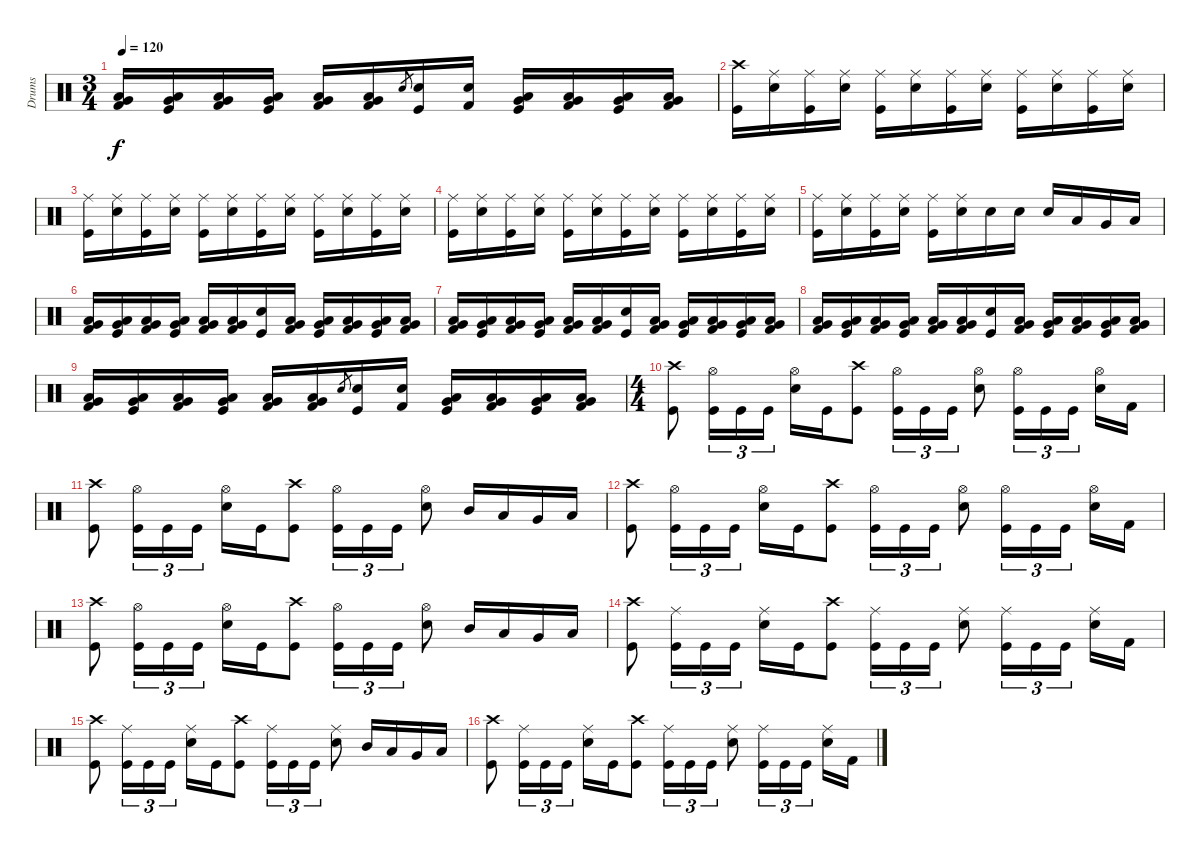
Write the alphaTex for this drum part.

\track ("Drums" "Drums") {instrument percussion}
\staff {score}
\articulation defaults
\ts (3 4)
\tempo 120
\clef neutral
\ks c
("Kick (hit) 2" "Very Low Tom (hit)" "Low Floor Tom (hit)").16{dy f} ("Kick (hit)" "Low Tom (hit)" "Very Low Tom (hit)").16 ("Kick (hit) 2" "Very Low Tom (hit)" "Low Floor Tom (hit)").16 ("Kick (hit)" "Low Tom (hit)" "Very Low Tom (hit)").16 ("Kick (hit) 2" "Very Low Tom (hit)" "Low Floor Tom (hit)").16 ("Kick (hit) 2" "Low Tom (hit)" "Very Low Tom (hit)").16 "Electric Snare (hit)".8{gr} ("Kick (hit)" "Electric Snare (hit)").16 ("Kick (hit) 2" "Electric Snare (hit)").16 ("Kick (hit)" "Very Low Tom (hit)" "Low Floor Tom (hit)").16 ("Kick (hit) 2" "Low Tom (hit)" "Very Low Tom (hit)").16 ("Kick (hit)" "Very Low Tom (hit)" "Low Floor Tom (hit)").16 ("Kick (hit) 2" "Low Tom (hit)" "Very Low Tom (hit)").16 |
("Kick (hit)" "Crash high (hit)").16 ("Ride (middle)" "Electric Snare (hit)").16 ("Kick (hit)" "Ride (middle)").16 ("Ride (middle)" "Electric Snare (hit)").16 ("Kick (hit)" "Ride (middle)").16 ("Ride (middle)" "Electric Snare (hit)").16 ("Kick (hit)" "Ride (middle)").16 ("Ride (middle)" "Electric Snare (hit)").16 ("Kick (hit)" "Ride (middle)").16 ("Ride (middle)" "Electric Snare (hit)").16 ("Kick (hit)" "Ride (middle)").16 ("Ride (middle)" "Electric Snare (hit)").16 |
("Kick (hit)" "Ride (middle)").16 ("Ride (middle)" "Electric Snare (hit)").16 ("Kick (hit)" "Ride (middle)").16 ("Ride (middle)" "Electric Snare (hit)").16 ("Kick (hit)" "Ride (middle)").16 ("Ride (middle)" "Electric Snare (hit)").16 ("Kick (hit)" "Ride (middle)").16 ("Ride (middle)" "Electric Snare (hit)").16 ("Kick (hit)" "Ride (middle)").16 ("Ride (middle)" "Electric Snare (hit)").16 ("Kick (hit)" "Ride (middle)").16 ("Ride (middle)" "Electric Snare (hit)").16 |
("Kick (hit)" "Ride (middle)").16 ("Ride (middle)" "Electric Snare (hit)").16 ("Kick (hit)" "Ride (middle)").16 ("Ride (middle)" "Electric Snare (hit)").16 ("Kick (hit)" "Ride (middle)").16 ("Ride (middle)" "Electric Snare (hit)").16 ("Kick (hit)" "Ride (middle)").16 ("Ride (middle)" "Electric Snare (hit)").16 ("Kick (hit)" "Ride (middle)").16 ("Ride (middle)" "Electric Snare (hit)").16 ("Kick (hit)" "Ride (middle)").16 ("Ride (middle)" "Electric Snare (hit)").16 |
("Kick (hit)" "Ride (middle)").16 ("Ride (middle)" "Electric Snare (hit)").16 ("Kick (hit)" "Ride (middle)").16 ("Ride (middle)" "Electric Snare (hit)").16 ("Kick (hit)" "Ride (middle)").16 ("Ride (middle)" "Electric Snare (hit)").16 "Electric Snare (hit)".16 "Electric Snare (hit)".16 "Electric Snare (hit)".16 "Low Tom (hit)".16 "Very Low Tom (hit)".16 "Low Floor Tom (hit)".16 |
("Kick (hit) 2" "Very Low Tom (hit)" "Low Floor Tom (hit)").16 ("Kick (hit)" "Low Tom (hit)" "Very Low Tom (hit)").16 ("Kick (hit) 2" "Very Low Tom (hit)" "Low Floor Tom (hit)").16 ("Kick (hit)" "Low Tom (hit)" "Very Low Tom (hit)").16 ("Kick (hit) 2" "Very Low Tom (hit)" "Low Floor Tom (hit)").16 ("Kick (hit) 2" "Low Tom (hit)" "Very Low Tom (hit)").16 ("Kick (hit)" "Electric Snare (hit)").16 ("Kick (hit) 2" "Low Tom (hit)" "Very Low Tom (hit)").16 ("Kick (hit)" "Very Low Tom (hit)" "Low Floor Tom (hit)").16 ("Kick (hit) 2" "Low Tom (hit)" "Very Low Tom (hit)").16 ("Kick (hit)" "Very Low Tom (hit)" "Low Floor Tom (hit)").16 ("Kick (hit) 2" "Low Tom (hit)" "Very Low Tom (hit)").16 |
("Kick (hit) 2" "Very Low Tom (hit)" "Low Floor Tom (hit)").16 ("Kick (hit)" "Low Tom (hit)" "Very Low Tom (hit)").16 ("Kick (hit) 2" "Very Low Tom (hit)" "Low Floor Tom (hit)").16 ("Kick (hit)" "Low Tom (hit)" "Very Low Tom (hit)").16 ("Kick (hit) 2" "Very Low Tom (hit)" "Low Floor Tom (hit)").16 ("Kick (hit) 2" "Low Tom (hit)" "Very Low Tom (hit)").16 ("Kick (hit)" "Electric Snare (hit)").16 ("Kick (hit) 2" "Low Tom (hit)" "Very Low Tom (hit)").16 ("Kick (hit)" "Very Low Tom (hit)" "Low Floor Tom (hit)").16 ("Kick (hit) 2" "Low Tom (hit)" "Very Low Tom (hit)").16 ("Kick (hit)" "Very Low Tom (hit)" "Low Floor Tom (hit)").16 ("Kick (hit) 2" "Low Tom (hit)" "Very Low Tom (hit)").16 |
("Kick (hit) 2" "Very Low Tom (hit)" "Low Floor Tom (hit)").16 ("Kick (hit)" "Low Tom (hit)" "Very Low Tom (hit)").16 ("Kick (hit) 2" "Very Low Tom (hit)" "Low Floor Tom (hit)").16 ("Kick (hit)" "Low Tom (hit)" "Very Low Tom (hit)").16 ("Kick (hit) 2" "Very Low Tom (hit)" "Low Floor Tom (hit)").16 ("Kick (hit) 2" "Low Tom (hit)" "Very Low Tom (hit)").16 ("Kick (hit)" "Electric Snare (hit)").16 ("Kick (hit) 2" "Low Tom (hit)" "Very Low Tom (hit)").16 ("Kick (hit)" "Very Low Tom (hit)" "Low Floor Tom (hit)").16 ("Kick (hit) 2" "Low Tom (hit)" "Very Low Tom (hit)").16 ("Kick (hit)" "Very Low Tom (hit)" "Low Floor Tom (hit)").16 ("Kick (hit) 2" "Low Tom (hit)" "Very Low Tom (hit)").16 |
("Kick (hit) 2" "Very Low Tom (hit)" "Low Floor Tom (hit)").16 ("Kick (hit)" "Low Tom (hit)" "Very Low Tom (hit)").16 ("Kick (hit) 2" "Very Low Tom (hit)" "Low Floor Tom (hit)").16 ("Kick (hit)" "Low Tom (hit)" "Very Low Tom (hit)").16 ("Kick (hit) 2" "Very Low Tom (hit)" "Low Floor Tom (hit)").16 ("Kick (hit) 2" "Low Tom (hit)" "Very Low Tom (hit)").16 "Electric Snare (hit)".8{gr} ("Kick (hit)" "Electric Snare (hit)").16 ("Kick (hit) 2" "Electric Snare (hit)").16 ("Kick (hit)" "Very Low Tom (hit)" "Low Floor Tom (hit)").16 ("Kick (hit) 2" "Low Tom (hit)" "Very Low Tom (hit)").16 ("Kick (hit)" "Very Low Tom (hit)" "Low Floor Tom (hit)").16 ("Kick (hit) 2" "Low Tom (hit)" "Very Low Tom (hit)").16 |
\ts (4 4)
("Kick (hit)" "Crash high (hit)").8 ("Kick (hit)" "Hi-Hat (open)").16{tu (3 2)} "Kick (hit)".16{tu (3 2)} "Kick (hit)".16{tu (3 2)} ("Hi-Hat (open)" "Electric Snare (hit)").16 "Kick (hit)".16 ("Kick (hit)" "Crash high (hit)").8 ("Kick (hit)" "Hi-Hat (open)").16{tu (3 2)} "Kick (hit)".16{tu (3 2)} "Kick (hit)".16{tu (3 2)} ("Hi-Hat (open)" "Electric Snare (hit)").8 ("Kick (hit)" "Hi-Hat (open)").16{tu (3 2)} "Kick (hit)".16{tu (3 2)} "Kick (hit)".16{tu (3 2)} ("Hi-Hat (open)" "Electric Snare (hit)").16 "Kick (hit) 2".16 |
("Kick (hit)" "Crash high (hit)").8 ("Kick (hit)" "Hi-Hat (open)").16{tu (3 2)} "Kick (hit)".16{tu (3 2)} "Kick (hit)".16{tu (3 2)} ("Hi-Hat (open)" "Electric Snare (hit)").16 "Kick (hit)".16 ("Kick (hit)" "Crash high (hit)").8 ("Kick (hit)" "Hi-Hat (open)").16{tu (3 2)} "Kick (hit)".16{tu (3 2)} "Kick (hit)".16{tu (3 2)} ("Hi-Hat (open)" "Electric Snare (hit)").8 "Mid Tom (hit)".16 "Low Tom (hit)".16 "Very Low Tom (hit)".16 "Low Floor Tom (hit)".16 |
("Kick (hit)" "Crash high (hit)").8 ("Kick (hit)" "Hi-Hat (open)").16{tu (3 2)} "Kick (hit)".16{tu (3 2)} "Kick (hit)".16{tu (3 2)} ("Hi-Hat (open)" "Electric Snare (hit)").16 "Kick (hit)".16 ("Kick (hit)" "Crash high (hit)").8 ("Kick (hit)" "Hi-Hat (open)").16{tu (3 2)} "Kick (hit)".16{tu (3 2)} "Kick (hit)".16{tu (3 2)} ("Hi-Hat (open)" "Electric Snare (hit)").8 ("Kick (hit)" "Hi-Hat (open)").16{tu (3 2)} "Kick (hit)".16{tu (3 2)} "Kick (hit)".16{tu (3 2)} ("Hi-Hat (open)" "Electric Snare (hit)").16 "Kick (hit) 2".16 |
("Kick (hit)" "Crash high (hit)").8 ("Kick (hit)" "Hi-Hat (open)").16{tu (3 2)} "Kick (hit)".16{tu (3 2)} "Kick (hit)".16{tu (3 2)} ("Hi-Hat (open)" "Electric Snare (hit)").16 "Kick (hit)".16 ("Kick (hit)" "Crash high (hit)").8 ("Kick (hit)" "Hi-Hat (open)").16{tu (3 2)} "Kick (hit)".16{tu (3 2)} "Kick (hit)".16{tu (3 2)} ("Hi-Hat (open)" "Electric Snare (hit)").8 "Mid Tom (hit)".16 "Low Tom (hit)".16 "Very Low Tom (hit)".16 "Low Floor Tom (hit)".16 |
("Kick (hit)" "Crash high (hit)").8 ("Kick (hit)" "Ride (middle)").16{tu (3 2)} "Kick (hit)".16{tu (3 2)} "Kick (hit)".16{tu (3 2)} ("Ride (middle)" "Electric Snare (hit)").16 "Kick (hit)".16 ("Kick (hit)" "Crash high (hit)").8 ("Kick (hit)" "Ride (middle)").16{tu (3 2)} "Kick (hit)".16{tu (3 2)} "Kick (hit)".16{tu (3 2)} ("Ride (middle)" "Electric Snare (hit)").8 ("Kick (hit)" "Ride (middle)").16{tu (3 2)} "Kick (hit)".16{tu (3 2)} "Kick (hit)".16{tu (3 2)} ("Ride (middle)" "Electric Snare (hit)").16 "Kick (hit) 2".16 |
("Kick (hit)" "Crash high (hit)").8 ("Kick (hit)" "Ride (middle)").16{tu (3 2)} "Kick (hit)".16{tu (3 2)} "Kick (hit)".16{tu (3 2)} ("Ride (middle)" "Electric Snare (hit)").16 "Kick (hit)".16 ("Kick (hit)" "Crash high (hit)").8 ("Kick (hit)" "Ride (middle)").16{tu (3 2)} "Kick (hit)".16{tu (3 2)} "Kick (hit)".16{tu (3 2)} ("Ride (middle)" "Electric Snare (hit)").8 "Mid Tom (hit)".16 "Low Tom (hit)".16 "Very Low Tom (hit)".16 "Low Floor Tom (hit)".16 |
("Kick (hit)" "Crash high (hit)").8 ("Kick (hit)" "Ride (middle)").16{tu (3 2)} "Kick (hit)".16{tu (3 2)} "Kick (hit)".16{tu (3 2)} ("Ride (middle)" "Electric Snare (hit)").16 "Kick (hit)".16 ("Kick (hit)" "Crash high (hit)").8 ("Kick (hit)" "Ride (middle)").16{tu (3 2)} "Kick (hit)".16{tu (3 2)} "Kick (hit)".16{tu (3 2)} ("Ride (middle)" "Electric Snare (hit)").8 ("Kick (hit)" "Ride (middle)").16{tu (3 2)} "Kick (hit)".16{tu (3 2)} "Kick (hit)".16{tu (3 2)} ("Ride (middle)" "Electric Snare (hit)").16 "Kick (hit) 2".16
